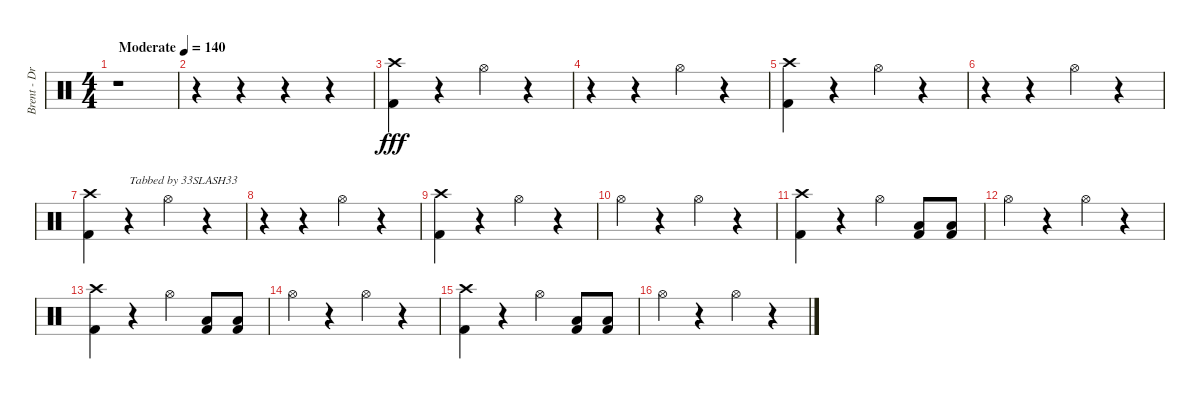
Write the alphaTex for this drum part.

\track ("Brent - Drums" "Brent - Dr") {instrument percussion}
\staff {score}
\articulation defaults
\ts (4 4)
\tempo (140 "Moderate")
\clef neutral
\ks c
r.1{dy fff} |
r.4 r.4 r.4 r.4 |
("Crash high (hit)" "Kick (hit) 2").4 r.4 "Hi-Hat (open)".4 r.4 |
r.4 r.4 "Hi-Hat (open)".4 r.4 |
("Crash high (hit)" "Kick (hit) 2").4 r.4 "Hi-Hat (open)".4 r.4 |
r.4 r.4 "Hi-Hat (open)".4 r.4 |
("Crash high (hit)" "Kick (hit) 2").4 r.4{txt "Tabbed by 33SLASH33"} "Hi-Hat (open)".4 r.4 |
r.4 r.4 "Hi-Hat (open)".4 r.4 |
("Crash high (hit)" "Kick (hit) 2").4 r.4 "Hi-Hat (open)".4 r.4 |
"Hi-Hat (open)".4 r.4 "Hi-Hat (open)".4 r.4 |
("Crash high (hit)" "Kick (hit) 2").4 r.4 "Hi-Hat (open)".4 ("Low Floor Tom (hit)" "Kick (hit) 2").8 ("Low Floor Tom (hit)" "Kick (hit) 2").8 |
"Hi-Hat (open)".4 r.4 "Hi-Hat (open)".4 r.4 |
("Crash high (hit)" "Kick (hit) 2").4 r.4 "Hi-Hat (open)".4 ("Low Floor Tom (hit)" "Kick (hit) 2").8 ("Low Floor Tom (hit)" "Kick (hit) 2").8 |
"Hi-Hat (open)".4 r.4 "Hi-Hat (open)".4 r.4 |
("Crash high (hit)" "Kick (hit) 2").4 r.4 "Hi-Hat (open)".4 ("Low Floor Tom (hit)" "Kick (hit) 2").8 ("Low Floor Tom (hit)" "Kick (hit) 2").8 |
"Hi-Hat (open)".4 r.4 "Hi-Hat (open)".4 r.4
